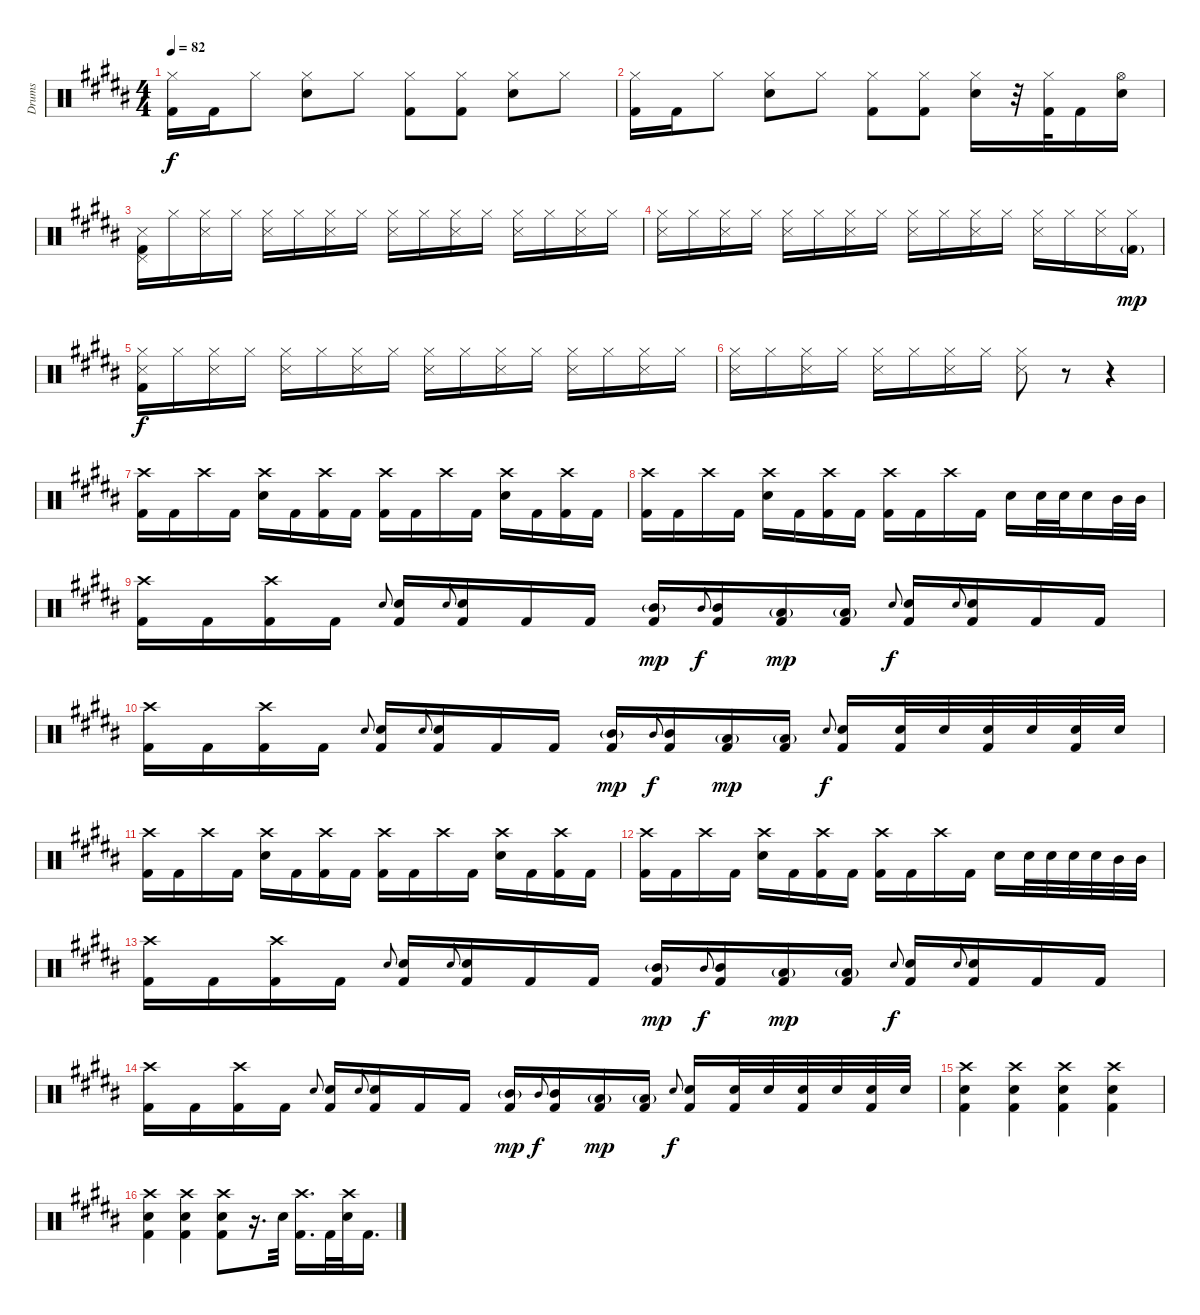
\track ("Drums" "Drums") {instrument percussion}
\staff {score}
\articulation defaults
\ts (4 4)
\tempo 82
\clef neutral
\ks b
("Hi-Hat (closed)" "Kick (hit) 2").16{dy f} "Kick (hit) 2".16 "Hi-Hat (closed)".8 ("Hi-Hat (closed)" "Electric Snare (hit)").8 "Hi-Hat (closed)".8 ("Hi-Hat (closed)" "Kick (hit) 2").8 ("Hi-Hat (closed)" "Kick (hit) 2").8 ("Hi-Hat (closed)" "Electric Snare (hit)").8 "Hi-Hat (closed)".8 |
("Hi-Hat (closed)" "Kick (hit) 2").16 "Kick (hit) 2".16 "Hi-Hat (closed)".8 ("Hi-Hat (closed)" "Electric Snare (hit)").8 "Hi-Hat (closed)".8 ("Hi-Hat (closed)" "Kick (hit) 2").8 ("Hi-Hat (closed)" "Kick (hit) 2").8 ("Hi-Hat (closed)" "Electric Snare (hit)").16 r.32 ("Hi-Hat (closed)" "Kick (hit) 2").32 "Kick (hit) 2".16 ("Hi-Hat (open)" "Electric Snare (hit)").16 |
("Pedal Hi-Hat (hit)" "Snare (side stick) 3" "Kick (hit) 2").16 "Hi-Hat (closed)".16 ("Hi-Hat (closed)" "Snare (side stick) 3").16 "Hi-Hat (closed)".16 ("Hi-Hat (closed)" "Snare (side stick) 3").16 "Hi-Hat (closed)".16 ("Hi-Hat (closed)" "Snare (side stick) 3").16 "Hi-Hat (closed)".16 ("Hi-Hat (closed)" "Snare (side stick) 3").16 "Hi-Hat (closed)".16 ("Hi-Hat (closed)" "Snare (side stick) 3").16 "Hi-Hat (closed)".16 ("Hi-Hat (closed)" "Snare (side stick) 3").16 "Hi-Hat (closed)".16 ("Hi-Hat (closed)" "Snare (side stick) 3").16 "Hi-Hat (closed)".16 |
("Hi-Hat (closed)" "Snare (side stick) 3").16 "Hi-Hat (closed)".16 ("Hi-Hat (closed)" "Snare (side stick) 3").16 "Hi-Hat (closed)".16 ("Hi-Hat (closed)" "Snare (side stick) 3").16 "Hi-Hat (closed)".16 ("Hi-Hat (closed)" "Snare (side stick) 3").16 "Hi-Hat (closed)".16 ("Hi-Hat (closed)" "Snare (side stick) 3").16 "Hi-Hat (closed)".16 ("Hi-Hat (closed)" "Snare (side stick) 3").16 "Hi-Hat (closed)".16 ("Hi-Hat (closed)" "Snare (side stick) 3").16 "Hi-Hat (closed)".16 ("Hi-Hat (closed)" "Snare (side stick) 3").16 ("Hi-Hat (closed)" "Kick (hit) 2"{g}).16{dy mp} |
("Hi-Hat (closed)" "Snare (side stick) 3" "Kick (hit) 2").16{dy f} "Hi-Hat (closed)".16 ("Hi-Hat (closed)" "Snare (side stick) 3").16 "Hi-Hat (closed)".16 ("Hi-Hat (closed)" "Snare (side stick) 3").16 "Hi-Hat (closed)".16 ("Hi-Hat (closed)" "Snare (side stick) 3").16 "Hi-Hat (closed)".16 ("Hi-Hat (closed)" "Snare (side stick) 3").16 "Hi-Hat (closed)".16 ("Hi-Hat (closed)" "Snare (side stick) 3").16 "Hi-Hat (closed)".16 ("Hi-Hat (closed)" "Snare (side stick) 3").16 "Hi-Hat (closed)".16 ("Hi-Hat (closed)" "Snare (side stick) 3").16 "Hi-Hat (closed)".16 |
("Hi-Hat (closed)" "Snare (side stick) 3").16 "Hi-Hat (closed)".16 ("Hi-Hat (closed)" "Snare (side stick) 3").16 "Hi-Hat (closed)".16 ("Hi-Hat (closed)" "Snare (side stick) 3").16 "Hi-Hat (closed)".16 ("Hi-Hat (closed)" "Snare (side stick) 3").16 "Hi-Hat (closed)".16 ("Hi-Hat (closed)" "Snare (side stick) 3").8 r.8 r.4 |
("Crash high (hit)" "Kick (hit) 2").16 "Kick (hit) 2".16 "Crash high (hit)".16 "Kick (hit) 2".16 ("Crash high (hit)" "Electric Snare (hit)").16 "Kick (hit) 2".16 ("Crash high (hit)" "Kick (hit) 2").16 "Kick (hit) 2".16 ("Crash high (hit)" "Kick (hit) 2").16 "Kick (hit) 2".16 "Crash high (hit)".16 "Kick (hit) 2".16 ("Crash high (hit)" "Electric Snare (hit)").16 "Kick (hit) 2".16 ("Crash high (hit)" "Kick (hit) 2").16 "Kick (hit) 2".16 |
("Crash high (hit)" "Kick (hit) 2").16 "Kick (hit) 2".16 "Crash high (hit)".16 "Kick (hit) 2".16 ("Crash high (hit)" "Electric Snare (hit)").16 "Kick (hit) 2".16 ("Crash high (hit)" "Kick (hit) 2").16 "Kick (hit) 2".16 ("Crash high (hit)" "Kick (hit) 2").16 "Kick (hit) 2".16 "Crash high (hit)".16 "Kick (hit) 2".16 "Electric Snare (hit)".16 "Electric Snare (hit)".32 "Electric Snare (hit)".32 "Electric Snare (hit)".16 "Mid Tom (hit)".32 "Mid Tom (hit)".32 |
("Crash high (hit)" "Kick (hit) 2").16 "Kick (hit) 2".16 ("Crash high (hit)" "Kick (hit) 2").16 "Kick (hit) 2".16 "Electric Snare (hit)".8{gr onbeat} ("Electric Snare (hit)" "Kick (hit) 2").16 "Electric Snare (hit)".8{gr onbeat} ("Electric Snare (hit)" "Kick (hit) 2").16 "Kick (hit) 2".16 "Kick (hit) 2".16 ("Mid Tom (hit)"{g} "Kick (hit) 2").16{dy mp} "Mid Tom (hit)".8{gr onbeat dy f} ("Mid Tom (hit)" "Kick (hit) 2").16 ("Low Tom (hit)"{g} "Kick (hit) 2").16{dy mp} ("Low Tom (hit)"{g} "Kick (hit) 2").16 "Electric Snare (hit)".8{gr onbeat dy f} ("Electric Snare (hit)" "Kick (hit) 2").16 "Electric Snare (hit)".8{gr onbeat} ("Electric Snare (hit)" "Kick (hit) 2").16 "Kick (hit) 2".16 "Kick (hit) 2".16 |
("Crash high (hit)" "Kick (hit) 2").16 "Kick (hit) 2".16 ("Crash high (hit)" "Kick (hit) 2").16 "Kick (hit) 2".16 "Electric Snare (hit)".8{gr onbeat} ("Electric Snare (hit)" "Kick (hit) 2").16 "Electric Snare (hit)".8{gr onbeat} ("Electric Snare (hit)" "Kick (hit) 2").16 "Kick (hit) 2".16 "Kick (hit) 2".16 ("Mid Tom (hit)"{g} "Kick (hit) 2").16{dy mp} "Mid Tom (hit)".8{gr onbeat dy f} ("Mid Tom (hit)" "Kick (hit) 2").16 ("Low Tom (hit)"{g} "Kick (hit) 2").16{dy mp} ("Low Tom (hit)"{g} "Kick (hit) 2").16 "Electric Snare (hit)".8{gr onbeat dy f} ("Electric Snare (hit)" "Kick (hit) 2").16 ("Electric Snare (hit)" "Kick (hit) 2").32 "Electric Snare (hit)".32 ("Electric Snare (hit)" "Kick (hit) 2").32 "Electric Snare (hit)".32 ("Electric Snare (hit)" "Kick (hit) 2").32 "Electric Snare (hit)".32 |
("Crash high (hit)" "Kick (hit) 2").16 "Kick (hit) 2".16 "Crash high (hit)".16 "Kick (hit) 2".16 ("Crash high (hit)" "Electric Snare (hit)").16 "Kick (hit) 2".16 ("Crash high (hit)" "Kick (hit) 2").16 "Kick (hit) 2".16 ("Crash high (hit)" "Kick (hit) 2").16 "Kick (hit) 2".16 "Crash high (hit)".16 "Kick (hit) 2".16 ("Crash high (hit)" "Electric Snare (hit)").16 "Kick (hit) 2".16 ("Crash high (hit)" "Kick (hit) 2").16 "Kick (hit) 2".16 |
("Crash high (hit)" "Kick (hit) 2").16 "Kick (hit) 2".16 "Crash high (hit)".16 "Kick (hit) 2".16 ("Crash high (hit)" "Electric Snare (hit)").16 "Kick (hit) 2".16 ("Crash high (hit)" "Kick (hit) 2").16 "Kick (hit) 2".16 ("Crash high (hit)" "Kick (hit) 2").16 "Kick (hit) 2".16 "Crash high (hit)".16 "Kick (hit) 2".16 "Electric Snare (hit)".16 "Electric Snare (hit)".32 "Electric Snare (hit)".32 "Electric Snare (hit)".32 "Electric Snare (hit)".32 "Mid Tom (hit)".32 "Mid Tom (hit)".32 |
("Crash high (hit)" "Kick (hit) 2").16 "Kick (hit) 2".16 ("Crash high (hit)" "Kick (hit) 2").16 "Kick (hit) 2".16 "Electric Snare (hit)".8{gr onbeat} ("Electric Snare (hit)" "Kick (hit) 2").16 "Electric Snare (hit)".8{gr onbeat} ("Electric Snare (hit)" "Kick (hit) 2").16 "Kick (hit) 2".16 "Kick (hit) 2".16 ("Mid Tom (hit)"{g} "Kick (hit) 2").16{dy mp} "Mid Tom (hit)".8{gr onbeat dy f} ("Mid Tom (hit)" "Kick (hit) 2").16 ("Low Tom (hit)"{g} "Kick (hit) 2").16{dy mp} ("Low Tom (hit)"{g} "Kick (hit) 2").16 "Electric Snare (hit)".8{gr onbeat dy f} ("Electric Snare (hit)" "Kick (hit) 2").16 "Electric Snare (hit)".8{gr onbeat} ("Electric Snare (hit)" "Kick (hit) 2").16 "Kick (hit) 2".16 "Kick (hit) 2".16 |
("Crash high (hit)" "Kick (hit) 2").16 "Kick (hit) 2".16 ("Crash high (hit)" "Kick (hit) 2").16 "Kick (hit) 2".16 "Electric Snare (hit)".8{gr onbeat} ("Electric Snare (hit)" "Kick (hit) 2").16 "Electric Snare (hit)".8{gr onbeat} ("Electric Snare (hit)" "Kick (hit) 2").16 "Kick (hit) 2".16 "Kick (hit) 2".16 ("Mid Tom (hit)"{g} "Kick (hit) 2").16{dy mp} "Mid Tom (hit)".8{gr onbeat dy f} ("Mid Tom (hit)" "Kick (hit) 2").16 ("Low Tom (hit)"{g} "Kick (hit) 2").16{dy mp} ("Low Tom (hit)"{g} "Kick (hit) 2").16 "Electric Snare (hit)".8{gr onbeat dy f} ("Electric Snare (hit)" "Kick (hit) 2").16 ("Electric Snare (hit)" "Kick (hit) 2").32 "Electric Snare (hit)".32 ("Electric Snare (hit)" "Kick (hit) 2").32 "Electric Snare (hit)".32 ("Electric Snare (hit)" "Kick (hit) 2").32 "Electric Snare (hit)".32 |
("Crash high (hit)" "Electric Snare (hit)" "Kick (hit) 2").4 ("Crash high (hit)" "Electric Snare (hit)" "Kick (hit) 2").4 ("Crash high (hit)" "Electric Snare (hit)" "Kick (hit) 2").4 ("Crash high (hit)" "Electric Snare (hit)" "Kick (hit) 2").4 |
("Crash high (hit)" "Electric Snare (hit)" "Kick (hit) 2").4 ("Crash high (hit)" "Electric Snare (hit)" "Kick (hit) 2").4 ("Crash high (hit)" "Electric Snare (hit)" "Kick (hit) 2").8 r.16{d} "Electric Snare (hit)".32 ("Crash high (hit)" "Kick (hit) 2").16{d} "Kick (hit) 2".32 ("Crash high (hit)" "Electric Snare (hit)").32 "Kick (hit) 2".16{d}
